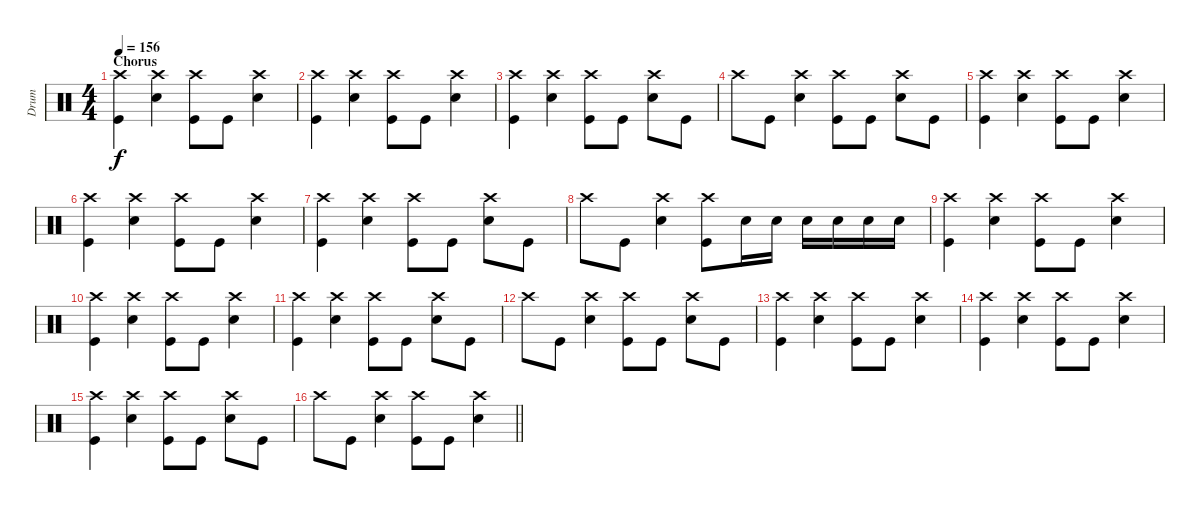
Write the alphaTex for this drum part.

\track ("Drum" "Drum") {instrument percussion}
\staff {score}
\articulation defaults
\ts (4 4)
\section ("" "Chorus")
\tempo 156
\clef neutral
\ks c
("Crash high (hit)" "Kick (hit)").4{dy f} ("Crash high (hit)" "Snare (hit) 2").4 ("Crash high (hit)" "Kick (hit)").8 "Kick (hit)".8 ("Crash high (hit)" "Snare (hit) 2").4 |
("Crash high (hit)" "Kick (hit)").4 ("Crash high (hit)" "Snare (hit) 2").4 ("Crash high (hit)" "Kick (hit)").8 "Kick (hit)".8 ("Crash high (hit)" "Snare (hit) 2").4 |
("Crash high (hit)" "Kick (hit)").4 ("Crash high (hit)" "Snare (hit) 2").4 ("Crash high (hit)" "Kick (hit)").8 "Kick (hit)".8 ("Crash high (hit)" "Snare (hit) 2").8 "Kick (hit)".8 |
"Crash high (hit)".8 "Kick (hit)".8 ("Crash high (hit)" "Snare (hit) 2").4 ("Crash high (hit)" "Kick (hit)").8 "Kick (hit)".8 ("Crash high (hit)" "Snare (hit) 2").8 "Kick (hit)".8 |
("Crash high (hit)" "Kick (hit)").4 ("Crash high (hit)" "Snare (hit) 2").4 ("Crash high (hit)" "Kick (hit)").8 "Kick (hit)".8 ("Crash high (hit)" "Snare (hit) 2").4 |
("Crash high (hit)" "Kick (hit)").4 ("Crash high (hit)" "Snare (hit) 2").4 ("Crash high (hit)" "Kick (hit)").8 "Kick (hit)".8 ("Crash high (hit)" "Snare (hit) 2").4 |
("Crash high (hit)" "Kick (hit)").4 ("Crash high (hit)" "Snare (hit) 2").4 ("Crash high (hit)" "Kick (hit)").8 "Kick (hit)".8 ("Crash high (hit)" "Snare (hit) 2").8 "Kick (hit)".8 |
"Crash high (hit)".8 "Kick (hit)".8 ("Crash high (hit)" "Snare (hit) 2").4 ("Crash high (hit)" "Kick (hit)").8 "Snare (hit) 2".16 "Snare (hit) 2".16 "Snare (hit) 2".16 "Snare (hit) 2".16 "Snare (hit) 2".16 "Snare (hit) 2".16 |
("Crash high (hit)" "Kick (hit)").4 ("Crash high (hit)" "Snare (hit) 2").4 ("Crash high (hit)" "Kick (hit)").8 "Kick (hit)".8 ("Crash high (hit)" "Snare (hit) 2").4 |
("Crash high (hit)" "Kick (hit)").4 ("Crash high (hit)" "Snare (hit) 2").4 ("Crash high (hit)" "Kick (hit)").8 "Kick (hit)".8 ("Crash high (hit)" "Snare (hit) 2").4 |
("Crash high (hit)" "Kick (hit)").4 ("Crash high (hit)" "Snare (hit) 2").4 ("Crash high (hit)" "Kick (hit)").8 "Kick (hit)".8 ("Crash high (hit)" "Snare (hit) 2").8 "Kick (hit)".8 |
"Crash high (hit)".8 "Kick (hit)".8 ("Crash high (hit)" "Snare (hit) 2").4 ("Crash high (hit)" "Kick (hit)").8 "Kick (hit)".8 ("Crash high (hit)" "Snare (hit) 2").8 "Kick (hit)".8 |
("Crash high (hit)" "Kick (hit)").4 ("Crash high (hit)" "Snare (hit) 2").4 ("Crash high (hit)" "Kick (hit)").8 "Kick (hit)".8 ("Crash high (hit)" "Snare (hit) 2").4 |
("Crash high (hit)" "Kick (hit)").4 ("Crash high (hit)" "Snare (hit) 2").4 ("Crash high (hit)" "Kick (hit)").8 "Kick (hit)".8 ("Crash high (hit)" "Snare (hit) 2").4 |
("Crash high (hit)" "Kick (hit)").4 ("Crash high (hit)" "Snare (hit) 2").4 ("Crash high (hit)" "Kick (hit)").8 "Kick (hit)".8 ("Crash high (hit)" "Snare (hit) 2").8 "Kick (hit)".8 |
\barLineRight lightlight "Crash high (hit)".8 "Kick (hit)".8
("Crash high (hit)" "Snare (hit) 2").4 ("Crash high (hit)" "Kick (hit)").8 "Kick (hit)".8 ("Crash high (hit)" "Snare (hit) 2").4
